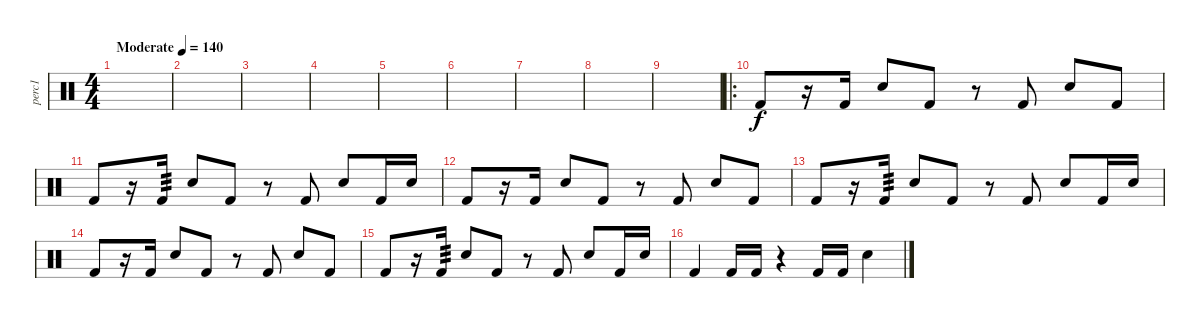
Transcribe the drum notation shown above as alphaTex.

\track ("perc1" "perc1") {instrument percussion}
\staff {score}
\articulation defaults
\ts (4 4)
\tempo (140 "Moderate")
\clef neutral
\ks c
|
|
|
|
|
|
|
|
|
\ro "Kick (hit) 2".8
r.16 "Kick (hit) 2".16 "Electric Snare (hit)".8 "Kick (hit) 2".8 r.8 "Kick (hit) 2".8 "Electric Snare (hit)".8 "Kick (hit) 2".8 |
"Kick (hit) 2".8 r.16 "Kick (hit) 2".16{tp 3} "Electric Snare (hit)".8 "Kick (hit) 2".8 r.8 "Kick (hit) 2".8 "Electric Snare (hit)".8 "Kick (hit) 2".16 "Electric Snare (hit)".16 |
"Kick (hit) 2".8 r.16 "Kick (hit) 2".16 "Electric Snare (hit)".8 "Kick (hit) 2".8 r.8 "Kick (hit) 2".8 "Electric Snare (hit)".8 "Kick (hit) 2".8 |
"Kick (hit) 2".8 r.16 "Kick (hit) 2".16{tp 3} "Electric Snare (hit)".8 "Kick (hit) 2".8 r.8 "Kick (hit) 2".8 "Electric Snare (hit)".8 "Kick (hit) 2".16 "Electric Snare (hit)".16 |
"Kick (hit) 2".8 r.16 "Kick (hit) 2".16 "Electric Snare (hit)".8 "Kick (hit) 2".8 r.8 "Kick (hit) 2".8 "Electric Snare (hit)".8 "Kick (hit) 2".8 |
"Kick (hit) 2".8 r.16 "Kick (hit) 2".16{tp 3} "Electric Snare (hit)".8 "Kick (hit) 2".8 r.8 "Kick (hit) 2".8 "Electric Snare (hit)".8 "Kick (hit) 2".16 "Electric Snare (hit)".16 |
"Kick (hit) 2".4 "Kick (hit) 2".16 "Kick (hit) 2".16 r.4 "Kick (hit) 2".16 "Kick (hit) 2".16 "Electric Snare (hit)".4
